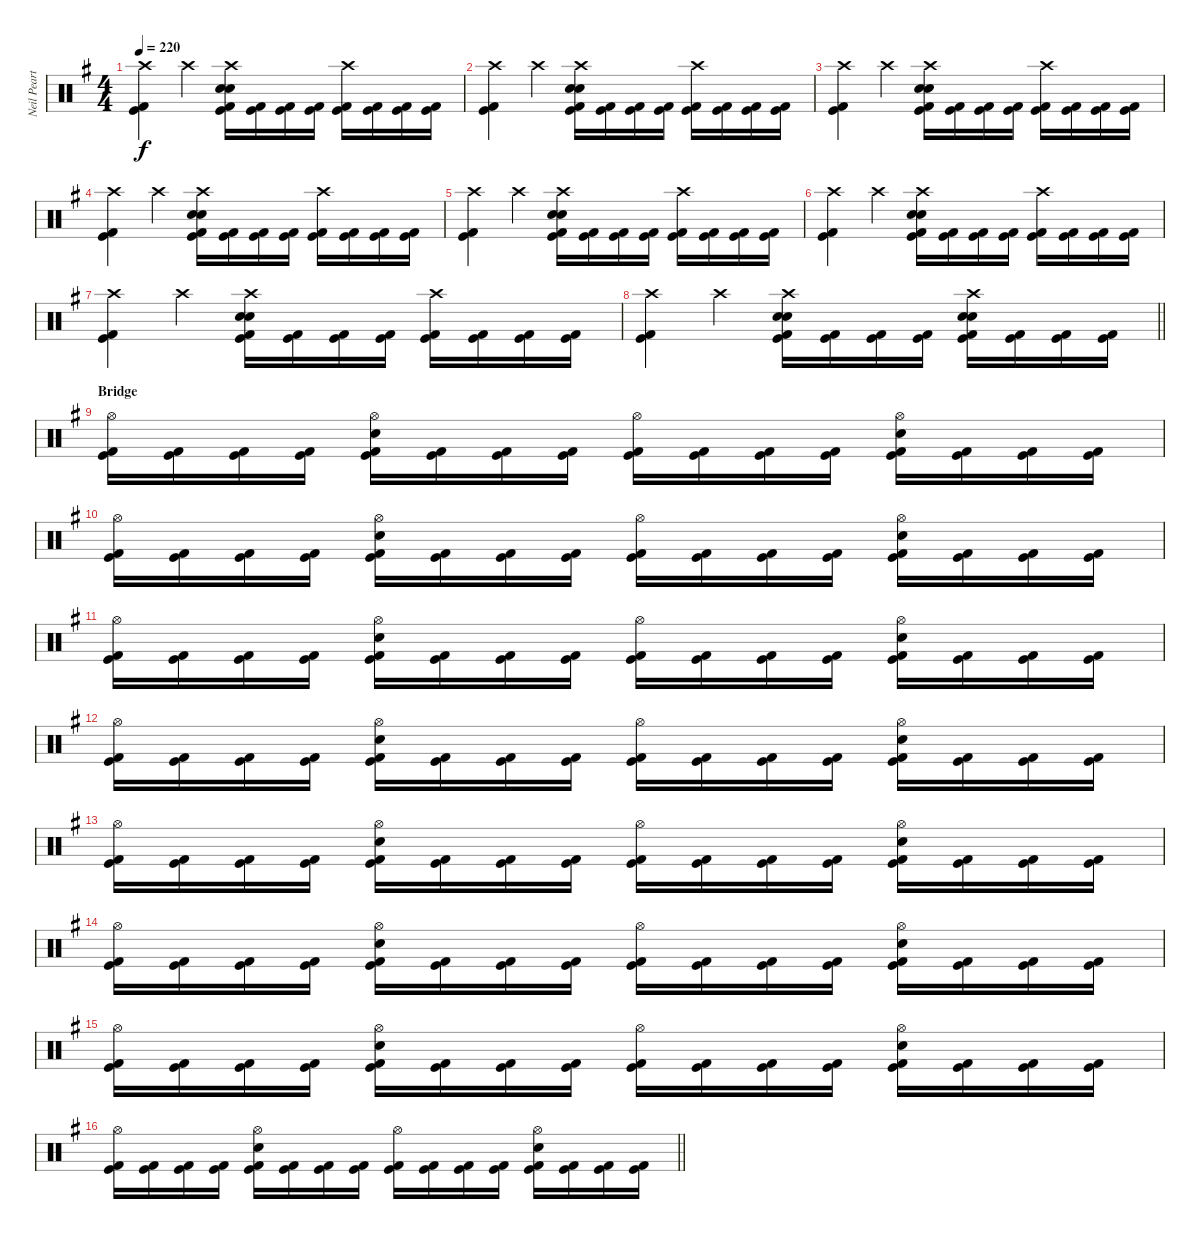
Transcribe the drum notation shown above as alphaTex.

\track ("Neil Peart" "Neil Peart") {instrument percussion}
\staff {score}
\articulation defaults
\ts (4 4)
\tempo 220
\clef neutral
\ks g
("Crash high (hit)" "Kick (hit)" "Kick (hit) 2").4{dy f} "Crash high (hit)".4 ("Snare (hit) 2" "Crash high (hit)" "Snare (hit) 2" "Kick (hit)" "Kick (hit) 2").16 ("Kick (hit)" "Kick (hit) 2").16 ("Kick (hit)" "Kick (hit) 2").16 ("Kick (hit)" "Kick (hit) 2").16 ("Crash high (hit)" "Kick (hit)" "Kick (hit) 2").16 ("Kick (hit)" "Kick (hit) 2").16 ("Kick (hit)" "Kick (hit) 2").16 ("Kick (hit)" "Kick (hit) 2").16 |
("Crash high (hit)" "Kick (hit)" "Kick (hit) 2").4 "Crash high (hit)".4 ("Snare (hit) 2" "Crash high (hit)" "Snare (hit) 2" "Kick (hit)" "Kick (hit) 2").16 ("Kick (hit)" "Kick (hit) 2").16 ("Kick (hit)" "Kick (hit) 2").16 ("Kick (hit)" "Kick (hit) 2").16 ("Crash high (hit)" "Kick (hit)" "Kick (hit) 2").16 ("Kick (hit)" "Kick (hit) 2").16 ("Kick (hit)" "Kick (hit) 2").16 ("Kick (hit)" "Kick (hit) 2").16 |
("Crash high (hit)" "Kick (hit)" "Kick (hit) 2").4 "Crash high (hit)".4 ("Snare (hit) 2" "Crash high (hit)" "Snare (hit) 2" "Kick (hit)" "Kick (hit) 2").16 ("Kick (hit)" "Kick (hit) 2").16 ("Kick (hit)" "Kick (hit) 2").16 ("Kick (hit)" "Kick (hit) 2").16 ("Crash high (hit)" "Kick (hit)" "Kick (hit) 2").16 ("Kick (hit)" "Kick (hit) 2").16 ("Kick (hit)" "Kick (hit) 2").16 ("Kick (hit)" "Kick (hit) 2").16 |
("Crash high (hit)" "Kick (hit)" "Kick (hit) 2").4 "Crash high (hit)".4 ("Snare (hit) 2" "Crash high (hit)" "Snare (hit) 2" "Kick (hit)" "Kick (hit) 2").16 ("Kick (hit)" "Kick (hit) 2").16 ("Kick (hit)" "Kick (hit) 2").16 ("Kick (hit)" "Kick (hit) 2").16 ("Crash high (hit)" "Kick (hit)" "Kick (hit) 2").16 ("Kick (hit)" "Kick (hit) 2").16 ("Kick (hit)" "Kick (hit) 2").16 ("Kick (hit)" "Kick (hit) 2").16 |
("Crash high (hit)" "Kick (hit)" "Kick (hit) 2").4 "Crash high (hit)".4 ("Snare (hit) 2" "Crash high (hit)" "Snare (hit) 2" "Kick (hit)" "Kick (hit) 2").16 ("Kick (hit)" "Kick (hit) 2").16 ("Kick (hit)" "Kick (hit) 2").16 ("Kick (hit)" "Kick (hit) 2").16 ("Crash high (hit)" "Kick (hit)" "Kick (hit) 2").16 ("Kick (hit)" "Kick (hit) 2").16 ("Kick (hit)" "Kick (hit) 2").16 ("Kick (hit)" "Kick (hit) 2").16 |
("Crash high (hit)" "Kick (hit)" "Kick (hit) 2").4 "Crash high (hit)".4 ("Snare (hit) 2" "Crash high (hit)" "Snare (hit) 2" "Kick (hit)" "Kick (hit) 2").16 ("Kick (hit)" "Kick (hit) 2").16 ("Kick (hit)" "Kick (hit) 2").16 ("Kick (hit)" "Kick (hit) 2").16 ("Crash high (hit)" "Kick (hit)" "Kick (hit) 2").16 ("Kick (hit)" "Kick (hit) 2").16 ("Kick (hit)" "Kick (hit) 2").16 ("Kick (hit)" "Kick (hit) 2").16 |
("Crash high (hit)" "Kick (hit)" "Kick (hit) 2").4 "Crash high (hit)".4 ("Snare (hit) 2" "Crash high (hit)" "Snare (hit) 2" "Kick (hit)" "Kick (hit) 2").16 ("Kick (hit)" "Kick (hit) 2").16 ("Kick (hit)" "Kick (hit) 2").16 ("Kick (hit)" "Kick (hit) 2").16 ("Crash high (hit)" "Kick (hit)" "Kick (hit) 2").16 ("Kick (hit)" "Kick (hit) 2").16 ("Kick (hit)" "Kick (hit) 2").16 ("Kick (hit)" "Kick (hit) 2").16 |
\barLineRight lightlight
("Crash high (hit)" "Kick (hit)" "Kick (hit) 2").4 "Crash high (hit)".4 ("Snare (hit) 2" "Crash high (hit)" "Snare (hit) 2" "Kick (hit)" "Kick (hit) 2").16 ("Kick (hit)" "Kick (hit) 2").16 ("Kick (hit)" "Kick (hit) 2").16 ("Kick (hit)" "Kick (hit) 2").16 ("Snare (hit) 2" "Crash high (hit)" "Snare (hit) 2" "Kick (hit)" "Kick (hit) 2").16 ("Kick (hit)" "Kick (hit) 2").16 ("Kick (hit)" "Kick (hit) 2").16 ("Kick (hit)" "Kick (hit) 2").16 |
\section ("" "Bridge")
("Hi-Hat (open)" "Kick (hit)" "Kick (hit) 2").16 ("Kick (hit)" "Kick (hit) 2").16 ("Kick (hit)" "Kick (hit) 2").16 ("Kick (hit)" "Kick (hit) 2").16 ("Hi-Hat (open)" "Snare (hit) 2" "Kick (hit)" "Kick (hit) 2").16 ("Kick (hit)" "Kick (hit) 2").16 ("Kick (hit)" "Kick (hit) 2").16 ("Kick (hit)" "Kick (hit) 2").16 ("Hi-Hat (open)" "Kick (hit)" "Kick (hit) 2").16 ("Kick (hit)" "Kick (hit) 2").16 ("Kick (hit)" "Kick (hit) 2").16 ("Kick (hit)" "Kick (hit) 2").16 ("Hi-Hat (open)" "Snare (hit) 2" "Kick (hit)" "Kick (hit) 2").16 ("Kick (hit)" "Kick (hit) 2").16 ("Kick (hit)" "Kick (hit) 2").16 ("Kick (hit)" "Kick (hit) 2").16 |
("Hi-Hat (open)" "Kick (hit)" "Kick (hit) 2").16 ("Kick (hit)" "Kick (hit) 2").16 ("Kick (hit)" "Kick (hit) 2").16 ("Kick (hit)" "Kick (hit) 2").16 ("Hi-Hat (open)" "Snare (hit) 2" "Kick (hit)" "Kick (hit) 2").16 ("Kick (hit)" "Kick (hit) 2").16 ("Kick (hit)" "Kick (hit) 2").16 ("Kick (hit)" "Kick (hit) 2").16 ("Hi-Hat (open)" "Kick (hit)" "Kick (hit) 2").16 ("Kick (hit)" "Kick (hit) 2").16 ("Kick (hit)" "Kick (hit) 2").16 ("Kick (hit)" "Kick (hit) 2").16 ("Hi-Hat (open)" "Snare (hit) 2" "Kick (hit)" "Kick (hit) 2").16 ("Kick (hit)" "Kick (hit) 2").16 ("Kick (hit)" "Kick (hit) 2").16 ("Kick (hit)" "Kick (hit) 2").16 |
("Hi-Hat (open)" "Kick (hit)" "Kick (hit) 2").16 ("Kick (hit)" "Kick (hit) 2").16 ("Kick (hit)" "Kick (hit) 2").16 ("Kick (hit)" "Kick (hit) 2").16 ("Hi-Hat (open)" "Snare (hit) 2" "Kick (hit)" "Kick (hit) 2").16 ("Kick (hit)" "Kick (hit) 2").16 ("Kick (hit)" "Kick (hit) 2").16 ("Kick (hit)" "Kick (hit) 2").16 ("Hi-Hat (open)" "Kick (hit)" "Kick (hit) 2").16 ("Kick (hit)" "Kick (hit) 2").16 ("Kick (hit)" "Kick (hit) 2").16 ("Kick (hit)" "Kick (hit) 2").16 ("Hi-Hat (open)" "Snare (hit) 2" "Kick (hit)" "Kick (hit) 2").16 ("Kick (hit)" "Kick (hit) 2").16 ("Kick (hit)" "Kick (hit) 2").16 ("Kick (hit)" "Kick (hit) 2").16 |
("Hi-Hat (open)" "Kick (hit)" "Kick (hit) 2").16 ("Kick (hit)" "Kick (hit) 2").16 ("Kick (hit)" "Kick (hit) 2").16 ("Kick (hit)" "Kick (hit) 2").16 ("Hi-Hat (open)" "Snare (hit) 2" "Kick (hit)" "Kick (hit) 2").16 ("Kick (hit)" "Kick (hit) 2").16 ("Kick (hit)" "Kick (hit) 2").16 ("Kick (hit)" "Kick (hit) 2").16 ("Hi-Hat (open)" "Kick (hit)" "Kick (hit) 2").16 ("Kick (hit)" "Kick (hit) 2").16 ("Kick (hit)" "Kick (hit) 2").16 ("Kick (hit)" "Kick (hit) 2").16 ("Hi-Hat (open)" "Snare (hit) 2" "Kick (hit)" "Kick (hit) 2").16 ("Kick (hit)" "Kick (hit) 2").16 ("Kick (hit)" "Kick (hit) 2").16 ("Kick (hit)" "Kick (hit) 2").16 |
("Hi-Hat (open)" "Kick (hit)" "Kick (hit) 2").16 ("Kick (hit)" "Kick (hit) 2").16 ("Kick (hit)" "Kick (hit) 2").16 ("Kick (hit)" "Kick (hit) 2").16 ("Hi-Hat (open)" "Snare (hit) 2" "Kick (hit)" "Kick (hit) 2").16 ("Kick (hit)" "Kick (hit) 2").16 ("Kick (hit)" "Kick (hit) 2").16 ("Kick (hit)" "Kick (hit) 2").16 ("Hi-Hat (open)" "Kick (hit)" "Kick (hit) 2").16 ("Kick (hit)" "Kick (hit) 2").16 ("Kick (hit)" "Kick (hit) 2").16 ("Kick (hit)" "Kick (hit) 2").16 ("Hi-Hat (open)" "Snare (hit) 2" "Kick (hit)" "Kick (hit) 2").16 ("Kick (hit)" "Kick (hit) 2").16 ("Kick (hit)" "Kick (hit) 2").16 ("Kick (hit)" "Kick (hit) 2").16 |
("Hi-Hat (open)" "Kick (hit)" "Kick (hit) 2").16 ("Kick (hit)" "Kick (hit) 2").16 ("Kick (hit)" "Kick (hit) 2").16 ("Kick (hit)" "Kick (hit) 2").16 ("Hi-Hat (open)" "Snare (hit) 2" "Kick (hit)" "Kick (hit) 2").16 ("Kick (hit)" "Kick (hit) 2").16 ("Kick (hit)" "Kick (hit) 2").16 ("Kick (hit)" "Kick (hit) 2").16 ("Hi-Hat (open)" "Kick (hit)" "Kick (hit) 2").16 ("Kick (hit)" "Kick (hit) 2").16 ("Kick (hit)" "Kick (hit) 2").16 ("Kick (hit)" "Kick (hit) 2").16 ("Hi-Hat (open)" "Snare (hit) 2" "Kick (hit)" "Kick (hit) 2").16 ("Kick (hit)" "Kick (hit) 2").16 ("Kick (hit)" "Kick (hit) 2").16 ("Kick (hit)" "Kick (hit) 2").16 |
("Hi-Hat (open)" "Kick (hit)" "Kick (hit) 2").16 ("Kick (hit)" "Kick (hit) 2").16 ("Kick (hit)" "Kick (hit) 2").16 ("Kick (hit)" "Kick (hit) 2").16 ("Hi-Hat (open)" "Snare (hit) 2" "Kick (hit)" "Kick (hit) 2").16 ("Kick (hit)" "Kick (hit) 2").16 ("Kick (hit)" "Kick (hit) 2").16 ("Kick (hit)" "Kick (hit) 2").16 ("Hi-Hat (open)" "Kick (hit)" "Kick (hit) 2").16 ("Kick (hit)" "Kick (hit) 2").16 ("Kick (hit)" "Kick (hit) 2").16 ("Kick (hit)" "Kick (hit) 2").16 ("Hi-Hat (open)" "Snare (hit) 2" "Kick (hit)" "Kick (hit) 2").16 ("Kick (hit)" "Kick (hit) 2").16 ("Kick (hit)" "Kick (hit) 2").16 ("Kick (hit)" "Kick (hit) 2").16 |
\barLineRight lightlight
("Hi-Hat (open)" "Kick (hit)" "Kick (hit) 2").16 ("Kick (hit)" "Kick (hit) 2").16 ("Kick (hit)" "Kick (hit) 2").16 ("Kick (hit)" "Kick (hit) 2").16 ("Hi-Hat (open)" "Snare (hit) 2" "Kick (hit)" "Kick (hit) 2").16 ("Kick (hit)" "Kick (hit) 2").16 ("Kick (hit)" "Kick (hit) 2").16 ("Kick (hit)" "Kick (hit) 2").16 ("Hi-Hat (open)" "Kick (hit)" "Kick (hit) 2").16 ("Kick (hit)" "Kick (hit) 2").16 ("Kick (hit)" "Kick (hit) 2").16 ("Kick (hit)" "Kick (hit) 2").16 ("Hi-Hat (open)" "Snare (hit) 2" "Kick (hit)" "Kick (hit) 2").16 ("Kick (hit)" "Kick (hit) 2").16 ("Kick (hit)" "Kick (hit) 2").16 ("Kick (hit)" "Kick (hit) 2").16
